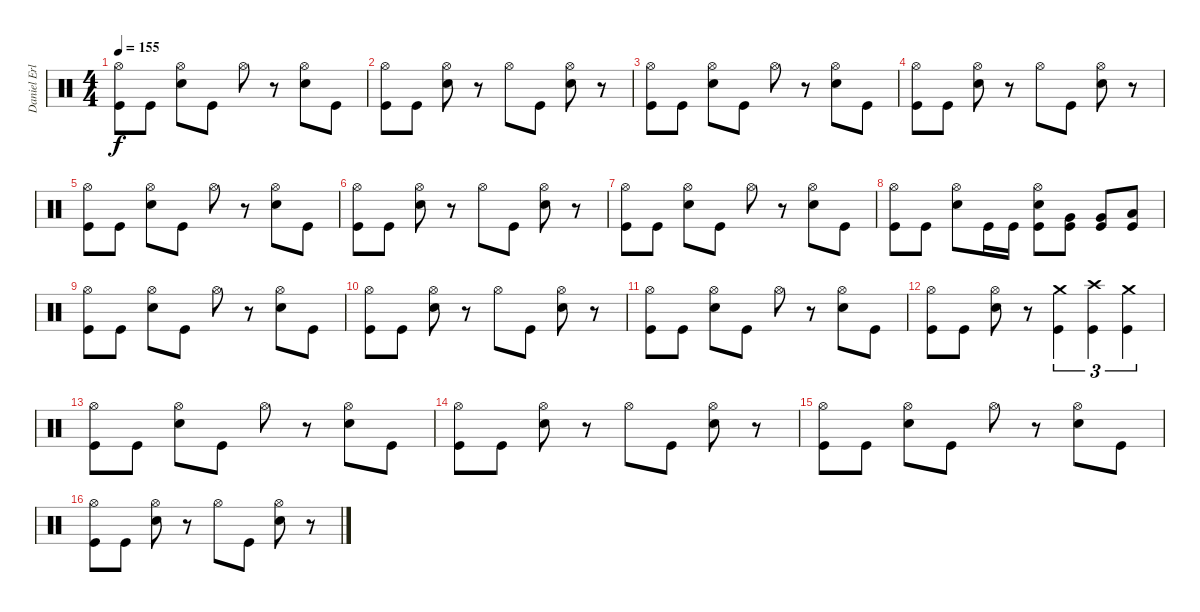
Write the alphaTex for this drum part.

\track ("Daniel Erlandsson" "Daniel Erl") {instrument percussion}
\staff {score}
\articulation defaults
\ts (4 4)
\tempo 155
\clef neutral
\ks c
("Hi-Hat (open)" "Kick (hit)").8{dy f} "Kick (hit)".8 ("Hi-Hat (open)" "Snare (hit) 2").8 "Kick (hit)".8 "Hi-Hat (open)".8 r.8 ("Hi-Hat (open)" "Snare (hit) 2").8 "Kick (hit)".8 |
("Hi-Hat (open)" "Kick (hit)").8 "Kick (hit)".8 ("Hi-Hat (open)" "Snare (hit) 2").8 r.8 "Hi-Hat (open)".8 "Kick (hit)".8 ("Hi-Hat (open)" "Snare (hit) 2").8 r.8 |
("Hi-Hat (open)" "Kick (hit)").8 "Kick (hit)".8 ("Hi-Hat (open)" "Snare (hit) 2").8 "Kick (hit)".8 "Hi-Hat (open)".8 r.8 ("Hi-Hat (open)" "Snare (hit) 2").8 "Kick (hit)".8 |
("Hi-Hat (open)" "Kick (hit)").8 "Kick (hit)".8 ("Hi-Hat (open)" "Snare (hit) 2").8 r.8 "Hi-Hat (open)".8 "Kick (hit)".8 ("Hi-Hat (open)" "Snare (hit) 2").8 r.8 |
("Hi-Hat (open)" "Kick (hit)").8 "Kick (hit)".8 ("Hi-Hat (open)" "Snare (hit) 2").8 "Kick (hit)".8 "Hi-Hat (open)".8 r.8 ("Hi-Hat (open)" "Snare (hit) 2").8 "Kick (hit)".8 |
("Hi-Hat (open)" "Kick (hit)").8 "Kick (hit)".8 ("Hi-Hat (open)" "Snare (hit) 2").8 r.8 "Hi-Hat (open)".8 "Kick (hit)".8 ("Hi-Hat (open)" "Snare (hit) 2").8 r.8 |
("Hi-Hat (open)" "Kick (hit)").8 "Kick (hit)".8 ("Hi-Hat (open)" "Snare (hit) 2").8 "Kick (hit)".8 "Hi-Hat (open)".8 r.8 ("Hi-Hat (open)" "Snare (hit) 2").8 "Kick (hit)".8 |
("Hi-Hat (open)" "Kick (hit)").8 "Kick (hit)".8 ("Hi-Hat (open)" "Snare (hit) 2").8 "Kick (hit)".16 "Kick (hit)".16 ("Hi-Hat (open)" "Snare (hit) 2" "Kick (hit)").8 ("Very Low Tom (hit)" "Kick (hit)").8 ("Very Low Tom (hit)" "Kick (hit)").8 ("Low Floor Tom (hit)" "Kick (hit)").8 |
("Hi-Hat (open)" "Kick (hit)").8 "Kick (hit)".8 ("Hi-Hat (open)" "Snare (hit) 2").8 "Kick (hit)".8 "Hi-Hat (open)".8 r.8 ("Hi-Hat (open)" "Snare (hit) 2").8 "Kick (hit)".8 |
("Hi-Hat (open)" "Kick (hit)").8 "Kick (hit)".8 ("Hi-Hat (open)" "Snare (hit) 2").8 r.8 "Hi-Hat (open)".8 "Kick (hit)".8 ("Hi-Hat (open)" "Snare (hit) 2").8 r.8 |
("Hi-Hat (open)" "Kick (hit)").8 "Kick (hit)".8 ("Hi-Hat (open)" "Snare (hit) 2").8 "Kick (hit)".8 "Hi-Hat (open)".8 r.8 ("Hi-Hat (open)" "Snare (hit) 2").8 "Kick (hit)".8 |
("Hi-Hat (open)" "Kick (hit)").8 "Kick (hit)".8 ("Hi-Hat (open)" "Snare (hit) 2").8 r.8 ("Crash medium (hit)" "Kick (hit)").4{tu (3 2)} ("Crash high (hit)" "Kick (hit)").4{tu (3 2)} ("Crash medium (hit)" "Kick (hit)").4{tu (3 2)} |
("Hi-Hat (open)" "Kick (hit)").8 "Kick (hit)".8 ("Hi-Hat (open)" "Snare (hit) 2").8 "Kick (hit)".8 "Hi-Hat (open)".8 r.8 ("Hi-Hat (open)" "Snare (hit) 2").8 "Kick (hit)".8 |
("Hi-Hat (open)" "Kick (hit)").8 "Kick (hit)".8 ("Hi-Hat (open)" "Snare (hit) 2").8 r.8 "Hi-Hat (open)".8 "Kick (hit)".8 ("Hi-Hat (open)" "Snare (hit) 2").8 r.8 |
("Hi-Hat (open)" "Kick (hit)").8 "Kick (hit)".8 ("Hi-Hat (open)" "Snare (hit) 2").8 "Kick (hit)".8 "Hi-Hat (open)".8 r.8 ("Hi-Hat (open)" "Snare (hit) 2").8 "Kick (hit)".8 |
("Hi-Hat (open)" "Kick (hit)").8 "Kick (hit)".8 ("Hi-Hat (open)" "Snare (hit) 2").8 r.8 "Hi-Hat (open)".8 "Kick (hit)".8 ("Hi-Hat (open)" "Snare (hit) 2").8 r.8
